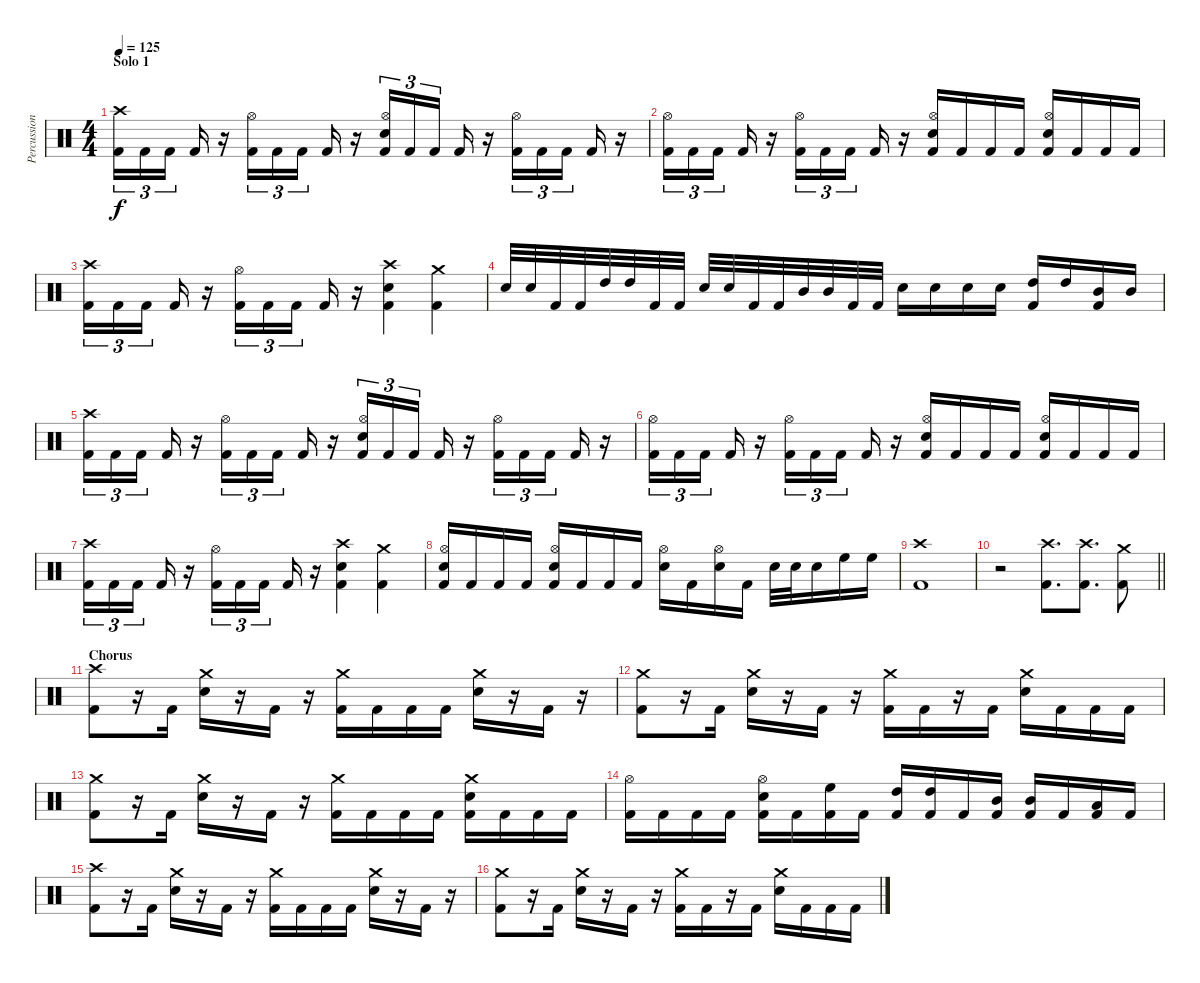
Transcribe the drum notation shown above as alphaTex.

\track ("Percussion" "Percussion") {instrument percussion}
\staff {score}
\articulation defaults
\ts (4 4)
\section ("" "Solo 1")
\tempo 125
\clef neutral
\ks c
("Crash high (hit)" "Kick (hit) 2").16{tu (3 2) dy f} "Kick (hit) 2".16{tu (3 2)} "Kick (hit) 2".16{tu (3 2) beam splitsecondary} "Kick (hit) 2".16 r.16 ("Hi-Hat (open)" "Kick (hit) 2").16{tu (3 2)} "Kick (hit) 2".16{tu (3 2)} "Kick (hit) 2".16{tu (3 2) beam splitsecondary} "Kick (hit) 2".16 r.16 ("Hi-Hat (open)" "Snare (hit) 2" "Kick (hit) 2").16{tu (3 2)} "Kick (hit) 2".16{tu (3 2)} "Kick (hit) 2".16{tu (3 2) beam splitsecondary} "Kick (hit) 2".16 r.16 ("Hi-Hat (open)" "Kick (hit) 2").16{tu (3 2)} "Kick (hit) 2".16{tu (3 2)} "Kick (hit) 2".16{tu (3 2) beam splitsecondary} "Kick (hit) 2".16 r.16 |
("Hi-Hat (open)" "Kick (hit) 2").16{tu (3 2)} "Kick (hit) 2".16{tu (3 2)} "Kick (hit) 2".16{tu (3 2) beam splitsecondary} "Kick (hit) 2".16 r.16 ("Hi-Hat (open)" "Kick (hit) 2").16{tu (3 2)} "Kick (hit) 2".16{tu (3 2)} "Kick (hit) 2".16{tu (3 2) beam splitsecondary} "Kick (hit) 2".16 r.16 ("Hi-Hat (open)" "Snare (hit) 2" "Kick (hit) 2").16 "Kick (hit) 2".16 "Kick (hit) 2".16 "Kick (hit) 2".16 ("Hi-Hat (open)" "Snare (hit) 2" "Kick (hit) 2").16 "Kick (hit) 2".16 "Kick (hit) 2".16 "Kick (hit) 2".16 |
("Crash high (hit)" "Kick (hit) 2").16{tu (3 2)} "Kick (hit) 2".16{tu (3 2)} "Kick (hit) 2".16{tu (3 2) beam splitsecondary} "Kick (hit) 2".16 r.16 ("Hi-Hat (open)" "Kick (hit) 2").16{tu (3 2)} "Kick (hit) 2".16{tu (3 2)} "Kick (hit) 2".16{tu (3 2) beam splitsecondary} "Kick (hit) 2".16 r.16 ("Crash high (hit)" "Snare (hit) 2" "Kick (hit) 2").4 ("Crash medium (hit)" "Kick (hit) 2").4 |
"Snare (hit) 2".32 "Snare (hit) 2".32 "Kick (hit) 2".32 "Kick (hit) 2".32 "High Tom (hit)".32 "High Tom (hit)".32 "Kick (hit) 2".32 "Kick (hit) 2".32 "Snare (hit) 2".32 "Snare (hit) 2".32 "Kick (hit) 2".32 "Kick (hit) 2".32 "Mid Tom (hit)".32 "Mid Tom (hit)".32 "Kick (hit) 2".32 "Kick (hit) 2".32 "Snare (hit) 2".16 "Snare (hit) 2".16 "Snare (hit) 2".16 "Snare (hit) 2".16 ("High Tom (hit)" "Kick (hit) 2").16 "High Tom (hit)".16 ("Mid Tom (hit)" "Kick (hit) 2").16 "Mid Tom (hit)".16 |
("Crash high (hit)" "Kick (hit) 2").16{tu (3 2)} "Kick (hit) 2".16{tu (3 2)} "Kick (hit) 2".16{tu (3 2) beam splitsecondary} "Kick (hit) 2".16 r.16 ("Hi-Hat (open)" "Kick (hit) 2").16{tu (3 2)} "Kick (hit) 2".16{tu (3 2)} "Kick (hit) 2".16{tu (3 2) beam splitsecondary} "Kick (hit) 2".16 r.16 ("Hi-Hat (open)" "Snare (hit) 2" "Kick (hit) 2").16{tu (3 2)} "Kick (hit) 2".16{tu (3 2)} "Kick (hit) 2".16{tu (3 2) beam splitsecondary} "Kick (hit) 2".16 r.16 ("Hi-Hat (open)" "Kick (hit) 2").16{tu (3 2)} "Kick (hit) 2".16{tu (3 2)} "Kick (hit) 2".16{tu (3 2) beam splitsecondary} "Kick (hit) 2".16 r.16 |
("Hi-Hat (open)" "Kick (hit) 2").16{tu (3 2)} "Kick (hit) 2".16{tu (3 2)} "Kick (hit) 2".16{tu (3 2) beam splitsecondary} "Kick (hit) 2".16 r.16 ("Hi-Hat (open)" "Kick (hit) 2").16{tu (3 2)} "Kick (hit) 2".16{tu (3 2)} "Kick (hit) 2".16{tu (3 2) beam splitsecondary} "Kick (hit) 2".16 r.16 ("Hi-Hat (open)" "Snare (hit) 2" "Kick (hit) 2").16 "Kick (hit) 2".16 "Kick (hit) 2".16 "Kick (hit) 2".16 ("Hi-Hat (open)" "Snare (hit) 2" "Kick (hit) 2").16 "Kick (hit) 2".16 "Kick (hit) 2".16 "Kick (hit) 2".16 |
("Crash high (hit)" "Kick (hit) 2").16{tu (3 2)} "Kick (hit) 2".16{tu (3 2)} "Kick (hit) 2".16{tu (3 2) beam splitsecondary} "Kick (hit) 2".16 r.16 ("Hi-Hat (open)" "Kick (hit) 2").16{tu (3 2)} "Kick (hit) 2".16{tu (3 2)} "Kick (hit) 2".16{tu (3 2) beam splitsecondary} "Kick (hit) 2".16 r.16 ("Crash high (hit)" "Snare (hit) 2" "Kick (hit) 2").4 ("Crash medium (hit)" "Kick (hit) 2").4 |
("Hi-Hat (open)" "Snare (hit) 2" "Kick (hit) 2").16 "Kick (hit) 2".16 "Kick (hit) 2".16 "Kick (hit) 2".16 ("Hi-Hat (open)" "Snare (hit) 2" "Kick (hit) 2").16 "Kick (hit) 2".16 "Kick (hit) 2".16 "Kick (hit) 2".16 ("Hi-Hat (open)" "Snare (hit) 2").16 "Kick (hit) 2".16 ("Hi-Hat (open)" "Snare (hit) 2").16 "Kick (hit) 2".16 "Snare (hit) 2".32 "Snare (hit) 2".32 "Snare (hit) 2".16 "High Floor Tom (hit)".16 "High Floor Tom (hit)".16 |
("Crash high (hit)" "Kick (hit) 2").1 |
\barLineRight lightlight
r.2 ("Crash high (hit)" "Kick (hit) 2").8{d} ("Crash high (hit)" "Kick (hit) 2").8{d} ("Crash medium (hit)" "Kick (hit) 2").8 |
\section ("" "Chorus")
("Crash high (hit)" "Kick (hit) 2").8 r.16 "Kick (hit) 2".16 ("Crash medium (hit)" "Snare (hit) 2").16 r.16 "Kick (hit) 2".16 r.16 ("Crash medium (hit)" "Kick (hit) 2").16 "Kick (hit) 2".16 "Kick (hit) 2".16 "Kick (hit) 2".16 ("Crash medium (hit)" "Snare (hit) 2").16 r.16 "Kick (hit) 2".16 r.16 |
("Crash medium (hit)" "Kick (hit) 2").8 r.16 "Kick (hit) 2".16 ("Crash medium (hit)" "Snare (hit) 2").16 r.16 "Kick (hit) 2".16 r.16 ("Crash medium (hit)" "Kick (hit) 2").16 "Kick (hit) 2".16 r.16 "Kick (hit) 2".16 ("Crash medium (hit)" "Snare (hit) 2").16 "Kick (hit) 2".16 "Kick (hit) 2".16 "Kick (hit) 2".16 |
("Crash medium (hit)" "Kick (hit) 2").8 r.16 "Kick (hit) 2".16 ("Crash medium (hit)" "Snare (hit) 2").16 r.16 "Kick (hit) 2".16 r.16 ("Crash medium (hit)" "Kick (hit) 2").16 "Kick (hit) 2".16 "Kick (hit) 2".16 "Kick (hit) 2".16 ("Crash medium (hit)" "Snare (hit) 2" "Kick (hit) 2").16 "Kick (hit) 2".16 "Kick (hit) 2".16 "Kick (hit) 2".16 |
("Hi-Hat (open)" "Kick (hit) 2").16 "Kick (hit) 2".16 "Kick (hit) 2".16 "Kick (hit) 2".16 ("Hi-Hat (open)" "Snare (hit) 2" "Kick (hit) 2").16 "Kick (hit) 2".16 ("High Floor Tom (hit)" "Kick (hit) 2").16 "Kick (hit) 2".16 ("High Tom (hit)" "Kick (hit) 2").16 ("High Tom (hit)" "Kick (hit) 2").16 "Kick (hit) 2".16 ("Mid Tom (hit)" "Kick (hit) 2").16 ("Mid Tom (hit)" "Kick (hit) 2").16 "Kick (hit) 2".16 ("Low Tom (hit)" "Kick (hit) 2").16 "Kick (hit) 2".16 |
("Crash high (hit)" "Kick (hit) 2").8 r.16 "Kick (hit) 2".16 ("Crash medium (hit)" "Snare (hit) 2").16 r.16 "Kick (hit) 2".16 r.16 ("Crash medium (hit)" "Kick (hit) 2").16 "Kick (hit) 2".16 "Kick (hit) 2".16 "Kick (hit) 2".16 ("Crash medium (hit)" "Snare (hit) 2").16 r.16 "Kick (hit) 2".16 r.16 |
("Crash medium (hit)" "Kick (hit) 2").8 r.16 "Kick (hit) 2".16 ("Crash medium (hit)" "Snare (hit) 2").16 r.16 "Kick (hit) 2".16 r.16 ("Crash medium (hit)" "Kick (hit) 2").16 "Kick (hit) 2".16 r.16 "Kick (hit) 2".16 ("Crash medium (hit)" "Snare (hit) 2").16 "Kick (hit) 2".16 "Kick (hit) 2".16 "Kick (hit) 2".16
